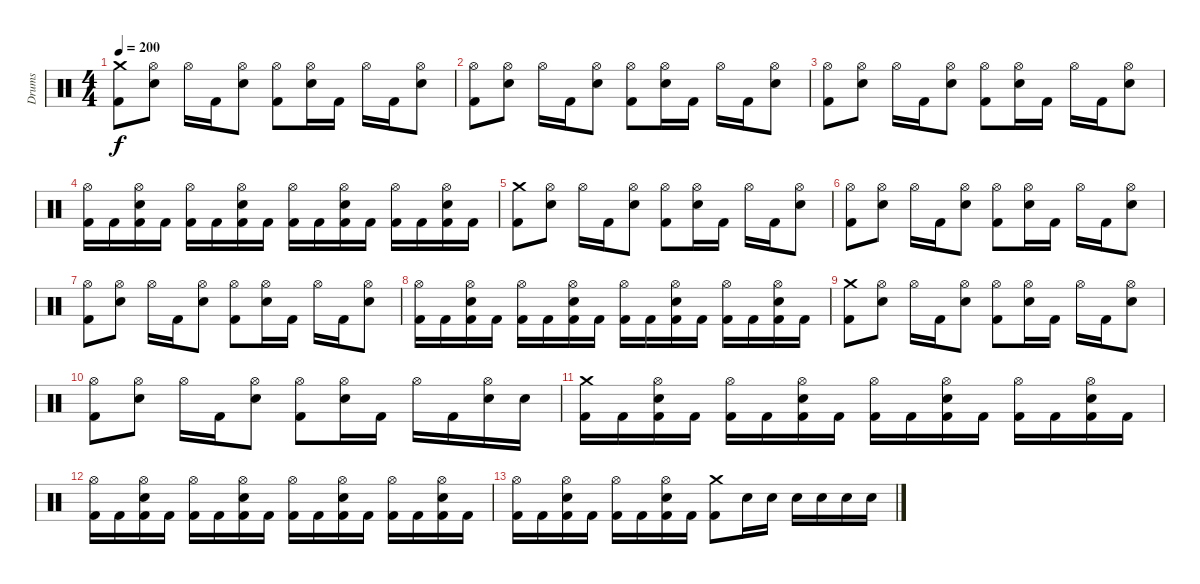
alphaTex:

\track ("Drums" "Drums") {instrument percussion}
\staff {score}
\articulation defaults
\ts (4 4)
\tempo 200
\clef neutral
\ks c
("Crash medium (hit)" "Kick (hit) 2").8{dy f} ("Hi-Hat (open)" "Snare (hit) 2").8 "Hi-Hat (open)".16 "Kick (hit) 2".16 ("Hi-Hat (open)" "Snare (hit) 2").8 ("Hi-Hat (open)" "Kick (hit) 2").8 ("Hi-Hat (open)" "Snare (hit) 2").16 "Kick (hit) 2".16 "Hi-Hat (open)".16 "Kick (hit) 2".16 ("Hi-Hat (open)" "Snare (hit) 2").8 |
("Hi-Hat (open)" "Kick (hit) 2").8 ("Hi-Hat (open)" "Snare (hit) 2").8 "Hi-Hat (open)".16 "Kick (hit) 2".16 ("Hi-Hat (open)" "Snare (hit) 2").8 ("Hi-Hat (open)" "Kick (hit) 2").8 ("Hi-Hat (open)" "Snare (hit) 2").16 "Kick (hit) 2".16 "Hi-Hat (open)".16 "Kick (hit) 2".16 ("Hi-Hat (open)" "Snare (hit) 2").8 |
("Hi-Hat (open)" "Kick (hit) 2").8 ("Hi-Hat (open)" "Snare (hit) 2").8 "Hi-Hat (open)".16 "Kick (hit) 2".16 ("Hi-Hat (open)" "Snare (hit) 2").8 ("Hi-Hat (open)" "Kick (hit) 2").8 ("Hi-Hat (open)" "Snare (hit) 2").16 "Kick (hit) 2".16 "Hi-Hat (open)".16 "Kick (hit) 2".16 ("Hi-Hat (open)" "Snare (hit) 2").8 |
("Hi-Hat (open)" "Kick (hit) 2").16 "Kick (hit) 2".16 ("Hi-Hat (open)" "Snare (hit) 2" "Kick (hit) 2").16 "Kick (hit) 2".16 ("Hi-Hat (open)" "Kick (hit) 2").16 "Kick (hit) 2".16 ("Hi-Hat (open)" "Snare (hit) 2" "Kick (hit) 2").16 "Kick (hit) 2".16 ("Hi-Hat (open)" "Kick (hit) 2").16 "Kick (hit) 2".16 ("Hi-Hat (open)" "Snare (hit) 2" "Kick (hit) 2").16 "Kick (hit) 2".16 ("Hi-Hat (open)" "Kick (hit) 2").16 "Kick (hit) 2".16 ("Hi-Hat (open)" "Snare (hit) 2" "Kick (hit) 2").16 "Kick (hit) 2".16 |
("Crash medium (hit)" "Kick (hit) 2").8 ("Hi-Hat (open)" "Snare (hit) 2").8 "Hi-Hat (open)".16 "Kick (hit) 2".16 ("Hi-Hat (open)" "Snare (hit) 2").8 ("Hi-Hat (open)" "Kick (hit) 2").8 ("Hi-Hat (open)" "Snare (hit) 2").16 "Kick (hit) 2".16 "Hi-Hat (open)".16 "Kick (hit) 2".16 ("Hi-Hat (open)" "Snare (hit) 2").8 |
("Hi-Hat (open)" "Kick (hit) 2").8 ("Hi-Hat (open)" "Snare (hit) 2").8 "Hi-Hat (open)".16 "Kick (hit) 2".16 ("Hi-Hat (open)" "Snare (hit) 2").8 ("Hi-Hat (open)" "Kick (hit) 2").8 ("Hi-Hat (open)" "Snare (hit) 2").16 "Kick (hit) 2".16 "Hi-Hat (open)".16 "Kick (hit) 2".16 ("Hi-Hat (open)" "Snare (hit) 2").8 |
("Hi-Hat (open)" "Kick (hit) 2").8 ("Hi-Hat (open)" "Snare (hit) 2").8 "Hi-Hat (open)".16 "Kick (hit) 2".16 ("Hi-Hat (open)" "Snare (hit) 2").8 ("Hi-Hat (open)" "Kick (hit) 2").8 ("Hi-Hat (open)" "Snare (hit) 2").16 "Kick (hit) 2".16 "Hi-Hat (open)".16 "Kick (hit) 2".16 ("Hi-Hat (open)" "Snare (hit) 2").8 |
("Hi-Hat (open)" "Kick (hit) 2").16 "Kick (hit) 2".16 ("Hi-Hat (open)" "Snare (hit) 2" "Kick (hit) 2").16 "Kick (hit) 2".16 ("Hi-Hat (open)" "Kick (hit) 2").16 "Kick (hit) 2".16 ("Hi-Hat (open)" "Snare (hit) 2" "Kick (hit) 2").16 "Kick (hit) 2".16 ("Hi-Hat (open)" "Kick (hit) 2").16 "Kick (hit) 2".16 ("Hi-Hat (open)" "Snare (hit) 2" "Kick (hit) 2").16 "Kick (hit) 2".16 ("Hi-Hat (open)" "Kick (hit) 2").16 "Kick (hit) 2".16 ("Hi-Hat (open)" "Snare (hit) 2" "Kick (hit) 2").16 "Kick (hit) 2".16 |
("Crash medium (hit)" "Kick (hit) 2").8 ("Hi-Hat (open)" "Snare (hit) 2").8 "Hi-Hat (open)".16 "Kick (hit) 2".16 ("Hi-Hat (open)" "Snare (hit) 2").8 ("Hi-Hat (open)" "Kick (hit) 2").8 ("Hi-Hat (open)" "Snare (hit) 2").16 "Kick (hit) 2".16 "Hi-Hat (open)".16 "Kick (hit) 2".16 ("Hi-Hat (open)" "Snare (hit) 2").8 |
("Hi-Hat (open)" "Kick (hit) 2").8 ("Hi-Hat (open)" "Snare (hit) 2").8 "Hi-Hat (open)".16 "Kick (hit) 2".16 ("Hi-Hat (open)" "Snare (hit) 2").8 ("Hi-Hat (open)" "Kick (hit) 2").8 ("Hi-Hat (open)" "Snare (hit) 2").16 "Kick (hit) 2".16 "Hi-Hat (open)".16 "Kick (hit) 2".16 ("Hi-Hat (open)" "Snare (hit) 2").16 "Snare (hit) 2".16 |
("Crash medium (hit)" "Kick (hit) 2").16 "Kick (hit) 2".16 ("Hi-Hat (open)" "Snare (hit) 2" "Kick (hit) 2").16 "Kick (hit) 2".16 ("Hi-Hat (open)" "Kick (hit) 2").16 "Kick (hit) 2".16 ("Hi-Hat (open)" "Snare (hit) 2" "Kick (hit) 2").16 "Kick (hit) 2".16 ("Hi-Hat (open)" "Kick (hit) 2").16 "Kick (hit) 2".16 ("Hi-Hat (open)" "Snare (hit) 2" "Kick (hit) 2").16 "Kick (hit) 2".16 ("Hi-Hat (open)" "Kick (hit) 2").16 "Kick (hit) 2".16 ("Hi-Hat (open)" "Snare (hit) 2" "Kick (hit) 2").16 "Kick (hit) 2".16 |
("Hi-Hat (open)" "Kick (hit) 2").16 "Kick (hit) 2".16 ("Hi-Hat (open)" "Snare (hit) 2" "Kick (hit) 2").16 "Kick (hit) 2".16 ("Hi-Hat (open)" "Kick (hit) 2").16 "Kick (hit) 2".16 ("Hi-Hat (open)" "Snare (hit) 2" "Kick (hit) 2").16 "Kick (hit) 2".16 ("Hi-Hat (open)" "Kick (hit) 2").16 "Kick (hit) 2".16 ("Hi-Hat (open)" "Snare (hit) 2" "Kick (hit) 2").16 "Kick (hit) 2".16 ("Hi-Hat (open)" "Kick (hit) 2").16 "Kick (hit) 2".16 ("Hi-Hat (open)" "Snare (hit) 2" "Kick (hit) 2").16 "Kick (hit) 2".16 |
("Hi-Hat (open)" "Kick (hit) 2").16 "Kick (hit) 2".16 ("Hi-Hat (open)" "Snare (hit) 2" "Kick (hit) 2").16 "Kick (hit) 2".16 ("Hi-Hat (open)" "Kick (hit) 2").16 "Kick (hit) 2".16 ("Hi-Hat (open)" "Snare (hit) 2" "Kick (hit) 2").16 "Kick (hit) 2".16 ("Crash medium (hit)" "Kick (hit) 2").8 "Snare (hit) 2".16 "Snare (hit) 2".16 "Snare (hit) 2".16 "Snare (hit) 2".16 "Snare (hit) 2".16 "Snare (hit) 2".16
